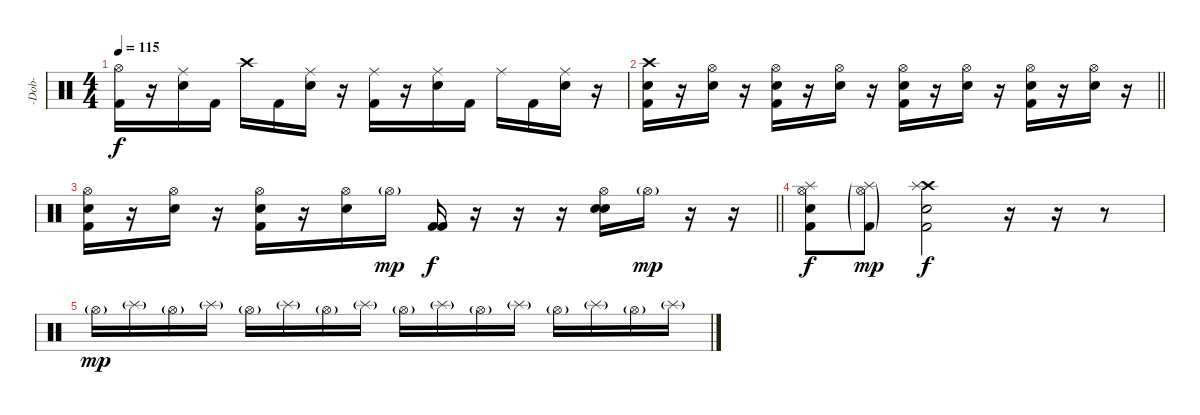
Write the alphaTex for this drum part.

\track ("-Dob-" "-Dob-") {instrument percussion}
\staff {score}
\articulation defaults
\ts (4 4)
\tempo 115
\clef neutral
\ks c
("Hi-Hat (open)" "Kick (hit) 2").16{dy f} r.16 ("Ride (middle)" "Snare (hit) 2").16 "Kick (hit) 2".16 "Crash high (hit)".16 "Kick (hit) 2".16 ("Ride (middle)" "Snare (hit) 2").16 r.16 ("Ride (middle)" "Kick (hit) 2").16 r.16 ("Ride (middle)" "Snare (hit) 2").16 "Kick (hit) 2".16 "Ride (middle)".16 "Kick (hit) 2".16 ("Ride (middle)" "Snare (hit) 2").16 r.16 |
\barLineRight lightlight
("Crash high (hit)" "Snare (hit) 2" "Kick (hit) 2").16 r.16 ("Hi-Hat (open)" "Snare (hit) 2").16 r.16 ("Hi-Hat (open)" "Snare (hit) 2" "Kick (hit) 2").16 r.16 ("Hi-Hat (open)" "Snare (hit) 2").16 r.16 ("Hi-Hat (open)" "Snare (hit) 2" "Kick (hit) 2").16 r.16 ("Hi-Hat (open)" "Snare (hit) 2").16 r.16 ("Hi-Hat (open)" "Snare (hit) 2" "Kick (hit) 2").16 r.16 ("Hi-Hat (open)" "Snare (hit) 2").16 r.16 |
\barLineRight lightlight
("Hi-Hat (open)" "Snare (hit) 2" "Kick (hit) 2").16 r.16 ("Hi-Hat (open)" "Snare (hit) 2").16 r.16 ("Hi-Hat (open)" "Snare (hit) 2" "Kick (hit) 2").16 r.16 ("Hi-Hat (open)" "Snare (hit) 2").16 "Hi-Hat (open)"{g}.16{dy mp} ("Kick (hit) 2" "Kick (hit) 2").16{dy f} r.16 r.16 r.16 ("Hi-Hat (open)" "Snare (hit) 2" "Snare (hit) 2").16 "Hi-Hat (open)"{g}.16{dy mp} r.16 r.16 |
("Hi-Hat (open)" "Splash (hit)" "Snare (hit) 2" "Kick (hit) 2").8{dy f} ("Hi-Hat (open)"{g} "Splash (hit)"{g} "Kick (hit) 2"{g}).8{dy mp} ("Crash high (hit)" "Splash (hit)" "Snare (hit) 2" "Kick (hit) 2").2{dy f volume 10} r.16 r.16 r.8 |
"Hi-Hat (open)"{g}.16{dy mp volume 6} "Splash (hit)"{g}.16 "Hi-Hat (open)"{g}.16 "Splash (hit)"{g}.16 "Hi-Hat (open)"{g}.16 "Splash (hit)"{g}.16 "Hi-Hat (open)"{g}.16 "Splash (hit)"{g}.16 "Hi-Hat (open)"{g}.16 "Splash (hit)"{g}.16 "Hi-Hat (open)"{g}.16 "Splash (hit)"{g}.16 "Hi-Hat (open)"{g}.16 "Splash (hit)"{g}.16 "Hi-Hat (open)"{g}.16 "Splash (hit)"{g}.16
